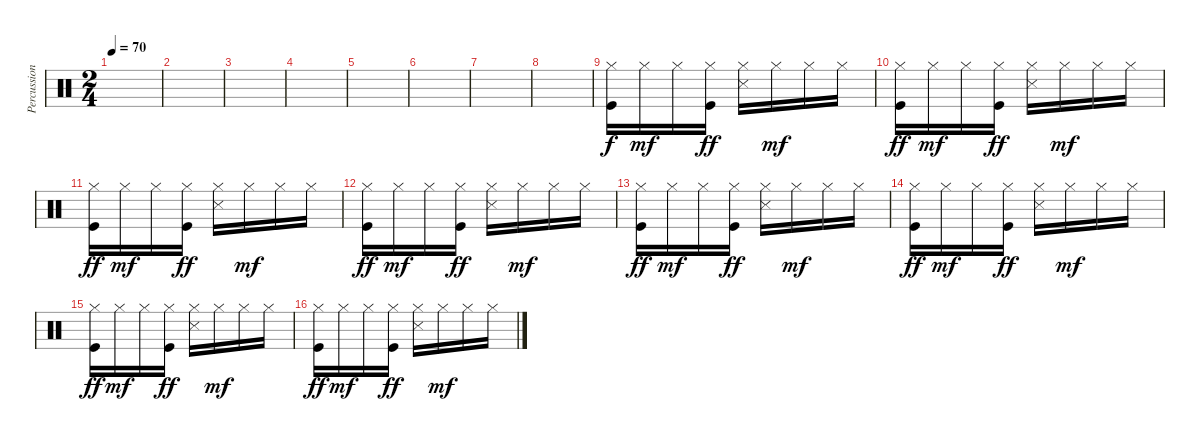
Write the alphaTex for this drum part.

\track ("Percussions" "Percussion") {instrument percussion}
\staff {score}
\articulation defaults
\ts (2 4)
\tempo 70
\clef neutral
\ks c
|
|
|
|
|
|
|
|
("Hi-Hat (closed)" "Kick (hit)").16 "Hi-Hat (closed)".16{dy mf} "Hi-Hat (closed)".16 ("Hi-Hat (closed)" "Kick (hit)").16{dy ff} ("Hi-Hat (closed)" "Snare (side stick) 3").16 "Hi-Hat (closed)".16{dy mf} "Hi-Hat (closed)".16 "Hi-Hat (closed)".16 |
("Hi-Hat (closed)" "Kick (hit)").16{dy ff} "Hi-Hat (closed)".16{dy mf} "Hi-Hat (closed)".16 ("Hi-Hat (closed)" "Kick (hit)").16{dy ff} ("Hi-Hat (closed)" "Snare (side stick) 3").16 "Hi-Hat (closed)".16{dy mf} "Hi-Hat (closed)".16 "Hi-Hat (closed)".16 |
("Hi-Hat (closed)" "Kick (hit)").16{dy ff} "Hi-Hat (closed)".16{dy mf} "Hi-Hat (closed)".16 ("Hi-Hat (closed)" "Kick (hit)").16{dy ff} ("Hi-Hat (closed)" "Snare (side stick) 3").16 "Hi-Hat (closed)".16{dy mf} "Hi-Hat (closed)".16 "Hi-Hat (closed)".16 |
("Hi-Hat (closed)" "Kick (hit)").16{dy ff} "Hi-Hat (closed)".16{dy mf} "Hi-Hat (closed)".16 ("Hi-Hat (closed)" "Kick (hit)").16{dy ff} ("Hi-Hat (closed)" "Snare (side stick) 3").16 "Hi-Hat (closed)".16{dy mf} "Hi-Hat (closed)".16 "Hi-Hat (closed)".16 |
("Hi-Hat (closed)" "Kick (hit)").16{dy ff} "Hi-Hat (closed)".16{dy mf} "Hi-Hat (closed)".16 ("Hi-Hat (closed)" "Kick (hit)").16{dy ff} ("Hi-Hat (closed)" "Snare (side stick) 3").16 "Hi-Hat (closed)".16{dy mf} "Hi-Hat (closed)".16 "Hi-Hat (closed)".16 |
("Hi-Hat (closed)" "Kick (hit)").16{dy ff} "Hi-Hat (closed)".16{dy mf} "Hi-Hat (closed)".16 ("Hi-Hat (closed)" "Kick (hit)").16{dy ff} ("Hi-Hat (closed)" "Snare (side stick) 3").16 "Hi-Hat (closed)".16{dy mf} "Hi-Hat (closed)".16 "Hi-Hat (closed)".16 |
("Hi-Hat (closed)" "Kick (hit)").16{dy ff} "Hi-Hat (closed)".16{dy mf} "Hi-Hat (closed)".16 ("Hi-Hat (closed)" "Kick (hit)").16{dy ff} ("Hi-Hat (closed)" "Snare (side stick) 3").16 "Hi-Hat (closed)".16{dy mf} "Hi-Hat (closed)".16 "Hi-Hat (closed)".16 |
("Hi-Hat (closed)" "Kick (hit)").16{dy ff} "Hi-Hat (closed)".16{dy mf} "Hi-Hat (closed)".16 ("Hi-Hat (closed)" "Kick (hit)").16{dy ff} ("Hi-Hat (closed)" "Snare (side stick) 3").16 "Hi-Hat (closed)".16{dy mf} "Hi-Hat (closed)".16 "Hi-Hat (closed)".16
